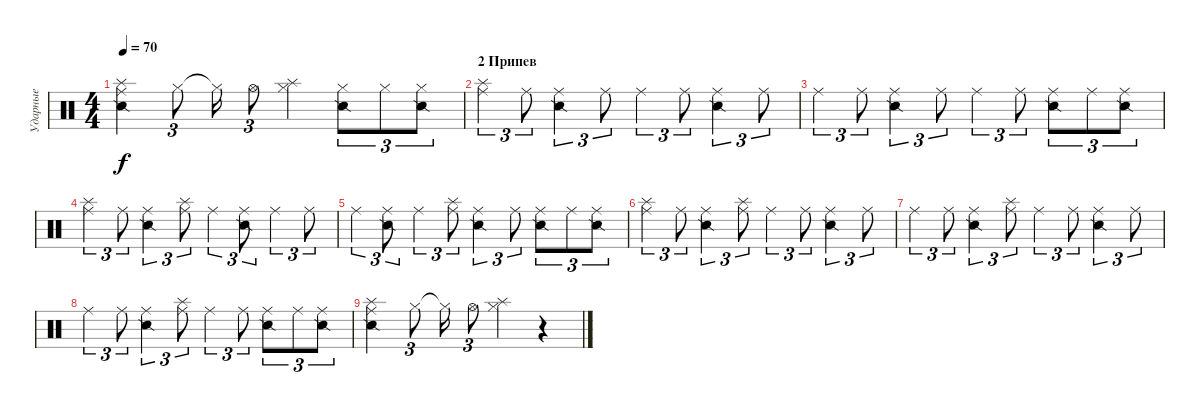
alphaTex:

\track ("Ударные" "Ударные") {instrument percussion}
\staff {score}
\articulation defaults
\ts (4 4)
\tempo 70
\clef neutral
\ks c
("Snare (side stick) 2" "Splash (hit)" "Ride (middle)").4{dy f} "Hi-Hat (closed)".8{tu (3 2)} "Hi-Hat (closed)"{t}.16 "Hi-Hat (open)".8{tu (3 2)} ("Hi-Hat (closed)" "Splash (hit)").4 ("Snare (side stick) 2" "Hi-Hat (closed)").8{tu (3 2)} "Hi-Hat (closed)".8{tu (3 2)} ("Snare (side stick) 2" "Hi-Hat (closed)").8{tu (3 2)} |
\section ("" "2 Припев")
("Splash (hit)" "Ride (middle)").4{tu (3 2)} "Ride (middle)".8{tu (3 2)} ("Snare (side stick) 2" "Ride (middle)").4{tu (3 2)} "Ride (middle)".8{tu (3 2)} "Ride (middle)".4{tu (3 2)} "Ride (middle)".8{tu (3 2)} ("Snare (side stick) 2" "Ride (middle)").4{tu (3 2)} "Ride (middle)".8{tu (3 2)} |
"Ride (middle)".4{tu (3 2)} "Ride (middle)".8{tu (3 2)} ("Snare (side stick) 2" "Ride (middle)").4{tu (3 2)} "Ride (middle)".8{tu (3 2)} "Ride (middle)".4{tu (3 2)} "Ride (middle)".8{tu (3 2)} ("Snare (side stick) 2" "Ride (middle)").8{tu (3 2)} "Ride (middle)".8{tu (3 2)} ("Snare (side stick) 2" "Ride (middle)").8{tu (3 2)} |
("Splash (hit)" "Ride (middle)").4{tu (3 2)} "Ride (middle)".8{tu (3 2)} ("Snare (side stick) 2" "Ride (middle)").4{tu (3 2)} ("Splash (hit)" "Ride (middle)").8{tu (3 2)} "Ride (middle)".4{tu (3 2)} ("Snare (side stick) 2" "Ride (middle)").8{tu (3 2)} "Ride (middle)".4{tu (3 2)} "Ride (middle)".8{tu (3 2)} |
"Ride (middle)".4{tu (3 2)} ("Snare (side stick) 2" "Ride (middle)").8{tu (3 2)} "Ride (middle)".4{tu (3 2)} ("Splash (hit)" "Ride (middle)").8{tu (3 2)} ("Snare (side stick) 2" "Ride (middle)").4{tu (3 2)} "Ride (middle)".8{tu (3 2)} ("Snare (side stick) 2" "Ride (middle)").8{tu (3 2)} "Ride (middle)".8{tu (3 2)} ("Snare (side stick) 2" "Ride (middle)").8{tu (3 2)} |
("Splash (hit)" "Ride (middle)").4{tu (3 2)} "Ride (middle)".8{tu (3 2)} ("Snare (side stick) 2" "Ride (middle)").4{tu (3 2)} ("Splash (hit)" "Ride (middle)").8{tu (3 2)} "Ride (middle)".4{tu (3 2)} "Ride (middle)".8{tu (3 2)} ("Snare (side stick) 2" "Ride (middle)").4{tu (3 2)} "Ride (middle)".8{tu (3 2)} |
"Ride (middle)".4{tu (3 2)} "Ride (middle)".8{tu (3 2)} ("Snare (side stick) 2" "Ride (middle)").4{tu (3 2)} ("Splash (hit)" "Ride (middle)").8{tu (3 2)} "Ride (middle)".4{tu (3 2)} "Ride (middle)".8{tu (3 2)} ("Snare (side stick) 2" "Ride (middle)").4{tu (3 2)} "Ride (middle)".8{tu (3 2)} |
"Ride (middle)".4{tu (3 2)} "Ride (middle)".8{tu (3 2)} ("Snare (side stick) 2" "Ride (middle)").4{tu (3 2)} ("Splash (hit)" "Ride (middle)").8{tu (3 2)} "Ride (middle)".4{tu (3 2)} "Ride (middle)".8{tu (3 2)} ("Snare (side stick) 2" "Ride (middle)").8{tu (3 2)} "Ride (middle)".8{tu (3 2)} ("Snare (side stick) 2" "Ride (middle)").8{tu (3 2)} |
("Snare (side stick) 2" "Splash (hit)" "Ride (middle)").4 "Hi-Hat (closed)".8{tu (3 2)} "Hi-Hat (closed)"{t}.16 "Hi-Hat (open)".8{tu (3 2)} ("Hi-Hat (closed)" "Splash (hit)").4 r.4
